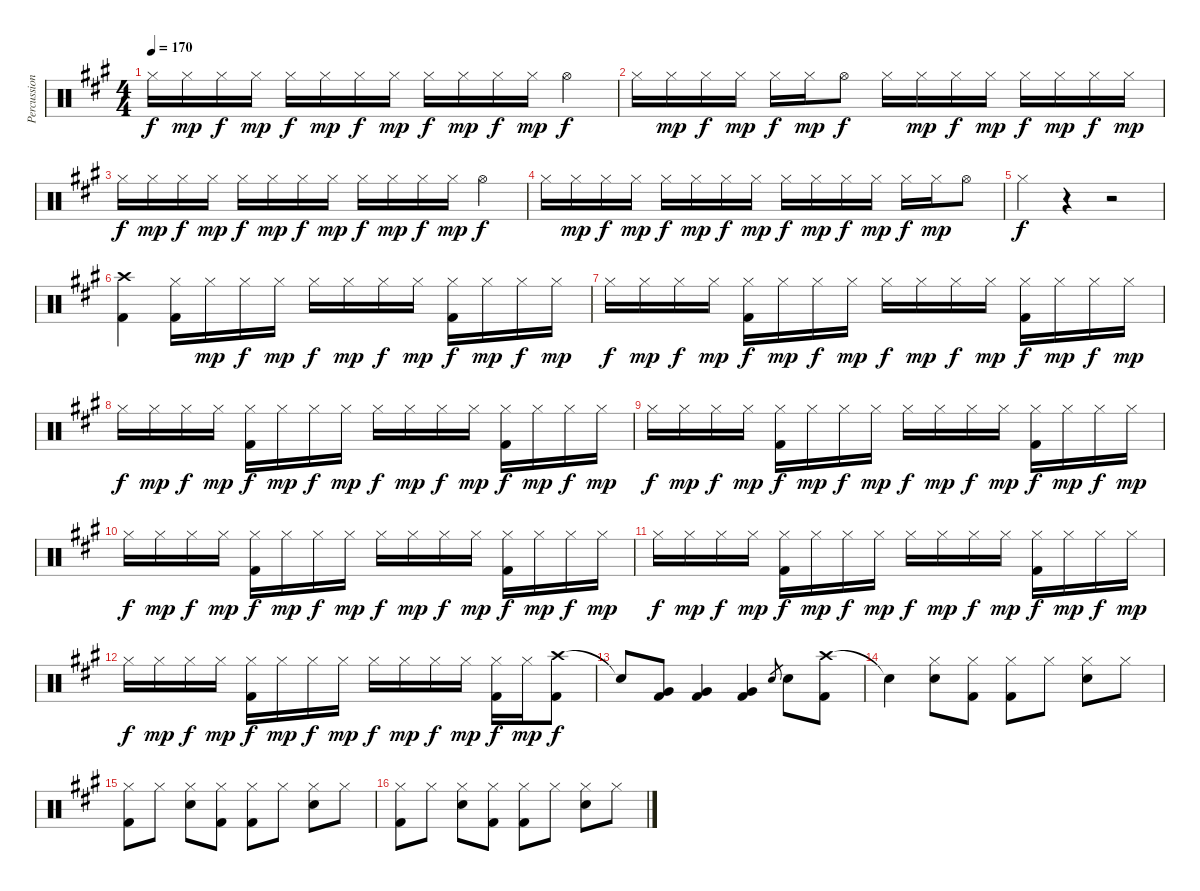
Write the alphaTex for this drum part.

\track ("Percussion" "Percussion") {instrument percussion}
\staff {score}
\articulation defaults
\ts (4 4)
\tempo 170
\clef neutral
\ks a "Hi-Hat (closed)".16{dy f} "Hi-Hat (closed)".16{dy mp} "Hi-Hat (closed)".16{dy f} "Hi-Hat (closed)".16{dy mp} "Hi-Hat (closed)".16{dy f} "Hi-Hat (closed)".16{dy mp} "Hi-Hat (closed)".16{dy f} "Hi-Hat (closed)".16{dy mp} "Hi-Hat (closed)".16{dy f} "Hi-Hat (closed)".16{dy mp} "Hi-Hat (closed)".16{dy f} "Hi-Hat (closed)".16{dy mp} "Hi-Hat (open)".4{dy f}
|
"Hi-Hat (closed)".16 "Hi-Hat (closed)".16{dy mp} "Hi-Hat (closed)".16{dy f} "Hi-Hat (closed)".16{dy mp} "Hi-Hat (closed)".16{dy f} "Hi-Hat (closed)".16{dy mp} "Hi-Hat (open)".8{dy f} "Hi-Hat (closed)".16 "Hi-Hat (closed)".16{dy mp} "Hi-Hat (closed)".16{dy f} "Hi-Hat (closed)".16{dy mp} "Hi-Hat (closed)".16{dy f} "Hi-Hat (closed)".16{dy mp} "Hi-Hat (closed)".16{dy f} "Hi-Hat (closed)".16{dy mp} |
"Hi-Hat (closed)".16{dy f} "Hi-Hat (closed)".16{dy mp} "Hi-Hat (closed)".16{dy f} "Hi-Hat (closed)".16{dy mp} "Hi-Hat (closed)".16{dy f} "Hi-Hat (closed)".16{dy mp} "Hi-Hat (closed)".16{dy f} "Hi-Hat (closed)".16{dy mp} "Hi-Hat (closed)".16{dy f} "Hi-Hat (closed)".16{dy mp} "Hi-Hat (closed)".16{dy f} "Hi-Hat (closed)".16{dy mp} "Hi-Hat (open)".4{dy f} |
"Hi-Hat (closed)".16 "Hi-Hat (closed)".16{dy mp} "Hi-Hat (closed)".16{dy f} "Hi-Hat (closed)".16{dy mp} "Hi-Hat (closed)".16{dy f} "Hi-Hat (closed)".16{dy mp} "Hi-Hat (closed)".16{dy f} "Hi-Hat (closed)".16{dy mp} "Hi-Hat (closed)".16{dy f} "Hi-Hat (closed)".16{dy mp} "Hi-Hat (closed)".16{dy f} "Hi-Hat (closed)".16{dy mp} "Hi-Hat (closed)".16{dy f} "Hi-Hat (closed)".16{dy mp} "Hi-Hat (open)".8 |
"Hi-Hat (closed)".4{dy f} r.4 r.2 |
("Crash high (hit)" "Kick (hit) 2").4{volume 12} ("Hi-Hat (closed)" "Kick (hit) 2").16 "Hi-Hat (closed)".16{dy mp} "Hi-Hat (closed)".16{dy f} "Hi-Hat (closed)".16{dy mp} "Hi-Hat (closed)".16{dy f} "Hi-Hat (closed)".16{dy mp} "Hi-Hat (closed)".16{dy f} "Hi-Hat (closed)".16{dy mp} ("Hi-Hat (closed)" "Kick (hit) 2").16{dy f} "Hi-Hat (closed)".16{dy mp} "Hi-Hat (closed)".16{dy f} "Hi-Hat (closed)".16{dy mp} |
"Hi-Hat (closed)".16{dy f} "Hi-Hat (closed)".16{dy mp} "Hi-Hat (closed)".16{dy f} "Hi-Hat (closed)".16{dy mp} ("Hi-Hat (closed)" "Kick (hit) 2").16{dy f} "Hi-Hat (closed)".16{dy mp} "Hi-Hat (closed)".16{dy f} "Hi-Hat (closed)".16{dy mp} "Hi-Hat (closed)".16{dy f} "Hi-Hat (closed)".16{dy mp} "Hi-Hat (closed)".16{dy f} "Hi-Hat (closed)".16{dy mp} ("Hi-Hat (closed)" "Kick (hit) 2").16{dy f} "Hi-Hat (closed)".16{dy mp} "Hi-Hat (closed)".16{dy f} "Hi-Hat (closed)".16{dy mp} |
"Hi-Hat (closed)".16{dy f} "Hi-Hat (closed)".16{dy mp} "Hi-Hat (closed)".16{dy f} "Hi-Hat (closed)".16{dy mp} ("Hi-Hat (closed)" "Kick (hit) 2").16{dy f} "Hi-Hat (closed)".16{dy mp} "Hi-Hat (closed)".16{dy f} "Hi-Hat (closed)".16{dy mp} "Hi-Hat (closed)".16{dy f} "Hi-Hat (closed)".16{dy mp} "Hi-Hat (closed)".16{dy f} "Hi-Hat (closed)".16{dy mp} ("Hi-Hat (closed)" "Kick (hit) 2").16{dy f} "Hi-Hat (closed)".16{dy mp} "Hi-Hat (closed)".16{dy f} "Hi-Hat (closed)".16{dy mp} |
"Hi-Hat (closed)".16{dy f} "Hi-Hat (closed)".16{dy mp} "Hi-Hat (closed)".16{dy f} "Hi-Hat (closed)".16{dy mp} ("Hi-Hat (closed)" "Kick (hit) 2").16{dy f} "Hi-Hat (closed)".16{dy mp} "Hi-Hat (closed)".16{dy f} "Hi-Hat (closed)".16{dy mp} "Hi-Hat (closed)".16{dy f} "Hi-Hat (closed)".16{dy mp} "Hi-Hat (closed)".16{dy f} "Hi-Hat (closed)".16{dy mp} ("Hi-Hat (closed)" "Kick (hit) 2").16{dy f} "Hi-Hat (closed)".16{dy mp} "Hi-Hat (closed)".16{dy f} "Hi-Hat (closed)".16{dy mp} |
"Hi-Hat (closed)".16{dy f} "Hi-Hat (closed)".16{dy mp} "Hi-Hat (closed)".16{dy f} "Hi-Hat (closed)".16{dy mp} ("Hi-Hat (closed)" "Kick (hit) 2").16{dy f} "Hi-Hat (closed)".16{dy mp} "Hi-Hat (closed)".16{dy f} "Hi-Hat (closed)".16{dy mp} "Hi-Hat (closed)".16{dy f} "Hi-Hat (closed)".16{dy mp} "Hi-Hat (closed)".16{dy f} "Hi-Hat (closed)".16{dy mp} ("Hi-Hat (closed)" "Kick (hit) 2").16{dy f} "Hi-Hat (closed)".16{dy mp} "Hi-Hat (closed)".16{dy f} "Hi-Hat (closed)".16{dy mp} |
"Hi-Hat (closed)".16{dy f} "Hi-Hat (closed)".16{dy mp} "Hi-Hat (closed)".16{dy f} "Hi-Hat (closed)".16{dy mp} ("Hi-Hat (closed)" "Kick (hit) 2").16{dy f} "Hi-Hat (closed)".16{dy mp} "Hi-Hat (closed)".16{dy f} "Hi-Hat (closed)".16{dy mp} "Hi-Hat (closed)".16{dy f} "Hi-Hat (closed)".16{dy mp} "Hi-Hat (closed)".16{dy f} "Hi-Hat (closed)".16{dy mp} ("Hi-Hat (closed)" "Kick (hit) 2").16{dy f} "Hi-Hat (closed)".16{dy mp} "Hi-Hat (closed)".16{dy f} "Hi-Hat (closed)".16{dy mp} |
"Hi-Hat (closed)".16{dy f} "Hi-Hat (closed)".16{dy mp} "Hi-Hat (closed)".16{dy f} "Hi-Hat (closed)".16{dy mp} ("Hi-Hat (closed)" "Kick (hit) 2").16{dy f} "Hi-Hat (closed)".16{dy mp} "Hi-Hat (closed)".16{dy f} "Hi-Hat (closed)".16{dy mp} "Hi-Hat (closed)".16{dy f} "Hi-Hat (closed)".16{dy mp} "Hi-Hat (closed)".16{dy f} "Hi-Hat (closed)".16{dy mp} ("Hi-Hat (closed)" "Kick (hit) 2").16{dy f} "Hi-Hat (closed)".16{dy mp} ("Crash high (hit)" "Kick (hit) 2").8{dy f} |
"Snare (hit)"{t}.8 ("Very Low Tom (hit)" "Kick (hit) 2").8 ("Very Low Tom (hit)" "Kick (hit) 2").4 ("Very Low Tom (hit)" "Kick (hit) 2").4 "Snare (hit) 2".8{gr} "Snare (hit) 2".8 ("Crash high (hit)" "Kick (hit) 2").8 |
"Snare (hit)"{t}.4 ("Hi-Hat (closed)" "Snare (hit) 2").8 ("Hi-Hat (closed)" "Kick (hit) 2").8 ("Hi-Hat (closed)" "Kick (hit) 2").8 "Hi-Hat (closed)".8 ("Hi-Hat (closed)" "Snare (hit) 2").8 "Hi-Hat (closed)".8 |
("Hi-Hat (closed)" "Kick (hit) 2").8 "Hi-Hat (closed)".8 ("Hi-Hat (closed)" "Snare (hit) 2").8 ("Hi-Hat (closed)" "Kick (hit) 2").8 ("Hi-Hat (closed)" "Kick (hit) 2").8 "Hi-Hat (closed)".8 ("Hi-Hat (closed)" "Snare (hit) 2").8 "Hi-Hat (closed)".8 |
("Hi-Hat (closed)" "Kick (hit) 2").8 "Hi-Hat (closed)".8 ("Hi-Hat (closed)" "Snare (hit) 2").8 ("Hi-Hat (closed)" "Kick (hit) 2").8 ("Hi-Hat (closed)" "Kick (hit) 2").8 "Hi-Hat (closed)".8 ("Hi-Hat (closed)" "Snare (hit) 2").8 "Hi-Hat (closed)".8
